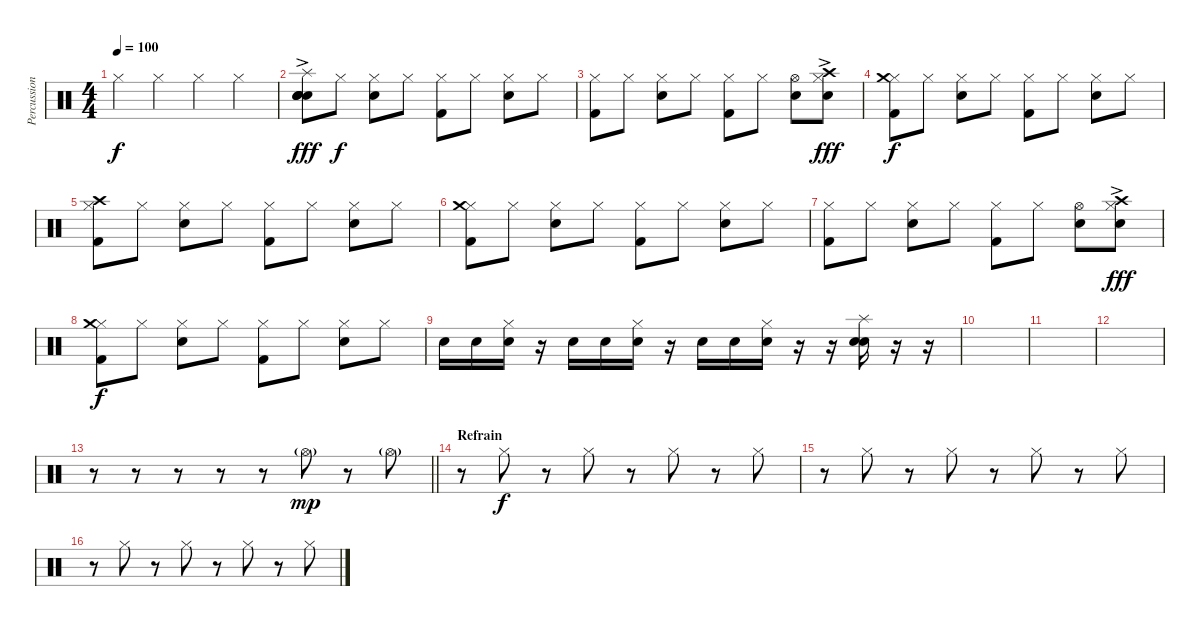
\track ("Percussions" "Percussion") {instrument percussion}
\staff {score}
\articulation defaults
\ts (4 4)
\tempo 100
\clef neutral
\ks c "Hi-Hat (closed)".4{dy f} "Hi-Hat (closed)".4 "Hi-Hat (closed)".4 "Hi-Hat (closed)".4
|
("Electric Snare (hit)" "Electric Snare (hit)" "Splash (hit)" "Electric Snare (hit)"{ac} "Electric Snare (hit)").8{dy fff} "Hi-Hat (closed)".8{dy f} ("Hi-Hat (closed)" "Electric Snare (hit)").8 "Hi-Hat (closed)".8 ("Hi-Hat (closed)" "Kick (hit) 2").8 "Hi-Hat (closed)".8 ("Hi-Hat (closed)" "Electric Snare (hit)").8 "Hi-Hat (closed)".8 |
("Hi-Hat (closed)" "Kick (hit) 2").8 "Hi-Hat (closed)".8 ("Hi-Hat (closed)" "Electric Snare (hit)").8 "Hi-Hat (closed)".8 ("Hi-Hat (closed)" "Kick (hit) 2").8 "Hi-Hat (closed)".8 ("Hi-Hat (open)" "Electric Snare (hit)").8 ("Hi-Hat (closed)" "Crash high (hit)" "Electric Snare (hit)"{ac}).8{dy fff} |
("Hi-Hat (closed)" "Crash medium (hit)" "Kick (hit) 2").8{dy f} "Hi-Hat (closed)".8 ("Hi-Hat (closed)" "Electric Snare (hit)").8 "Hi-Hat (closed)".8 ("Hi-Hat (closed)" "Kick (hit) 2").8 "Hi-Hat (closed)".8 ("Hi-Hat (closed)" "Electric Snare (hit)").8 "Hi-Hat (closed)".8 |
("Hi-Hat (closed)" "Crash high (hit)" "Kick (hit) 2").8 "Hi-Hat (closed)".8 ("Hi-Hat (closed)" "Electric Snare (hit)").8 "Hi-Hat (closed)".8 ("Hi-Hat (closed)" "Kick (hit) 2").8 "Hi-Hat (closed)".8 ("Hi-Hat (closed)" "Electric Snare (hit)").8 "Hi-Hat (closed)".8 |
("Hi-Hat (closed)" "Crash medium (hit)" "Kick (hit) 2").8 "Hi-Hat (closed)".8 ("Hi-Hat (closed)" "Electric Snare (hit)").8 "Hi-Hat (closed)".8 ("Hi-Hat (closed)" "Kick (hit) 2").8 "Hi-Hat (closed)".8 ("Hi-Hat (closed)" "Electric Snare (hit)").8 "Hi-Hat (closed)".8 |
("Hi-Hat (closed)" "Kick (hit) 2").8 "Hi-Hat (closed)".8 ("Hi-Hat (closed)" "Electric Snare (hit)").8 "Hi-Hat (closed)".8 ("Hi-Hat (closed)" "Kick (hit) 2").8 "Hi-Hat (closed)".8 ("Hi-Hat (open)" "Electric Snare (hit)").8 ("Hi-Hat (closed)" "Crash high (hit)" "Electric Snare (hit)"{ac}).8{dy fff} |
("Hi-Hat (closed)" "Crash medium (hit)" "Kick (hit) 2").8{dy f} "Hi-Hat (closed)".8 ("Hi-Hat (closed)" "Electric Snare (hit)").8 "Hi-Hat (closed)".8 ("Hi-Hat (closed)" "Kick (hit) 2").8 "Hi-Hat (closed)".8 ("Hi-Hat (closed)" "Electric Snare (hit)").8 "Hi-Hat (closed)".8 |
"Electric Snare (hit)".16 "Electric Snare (hit)".16 ("Hi-Hat (closed)" "Electric Snare (hit)").16 r.16 "Electric Snare (hit)".16 "Electric Snare (hit)".16 ("Hi-Hat (closed)" "Electric Snare (hit)").16 r.16 "Electric Snare (hit)".16 "Electric Snare (hit)".16 ("Hi-Hat (closed)" "Electric Snare (hit)").16 r.16 r.16 ("Splash (hit)" "Electric Snare (hit)" "Electric Snare (hit)").16 r.16 r.16 |
|
|
|
\barLineRight lightlight
r.8 r.8 r.8 r.8 r.8 "Hi-Hat (open)"{g}.8{dy mp} r.8 "Hi-Hat (open)"{g}.8 |
\section ("" "Refrain")
r.8 "Hi-Hat (closed)".8{dy f} r.8 "Hi-Hat (closed)".8 r.8 "Hi-Hat (closed)".8 r.8 "Hi-Hat (closed)".8 |
r.8 "Hi-Hat (closed)".8 r.8 "Hi-Hat (closed)".8 r.8 "Hi-Hat (closed)".8 r.8 "Hi-Hat (closed)".8 |
r.8 "Hi-Hat (closed)".8 r.8 "Hi-Hat (closed)".8 r.8 "Hi-Hat (closed)".8 r.8 "Hi-Hat (closed)".8
